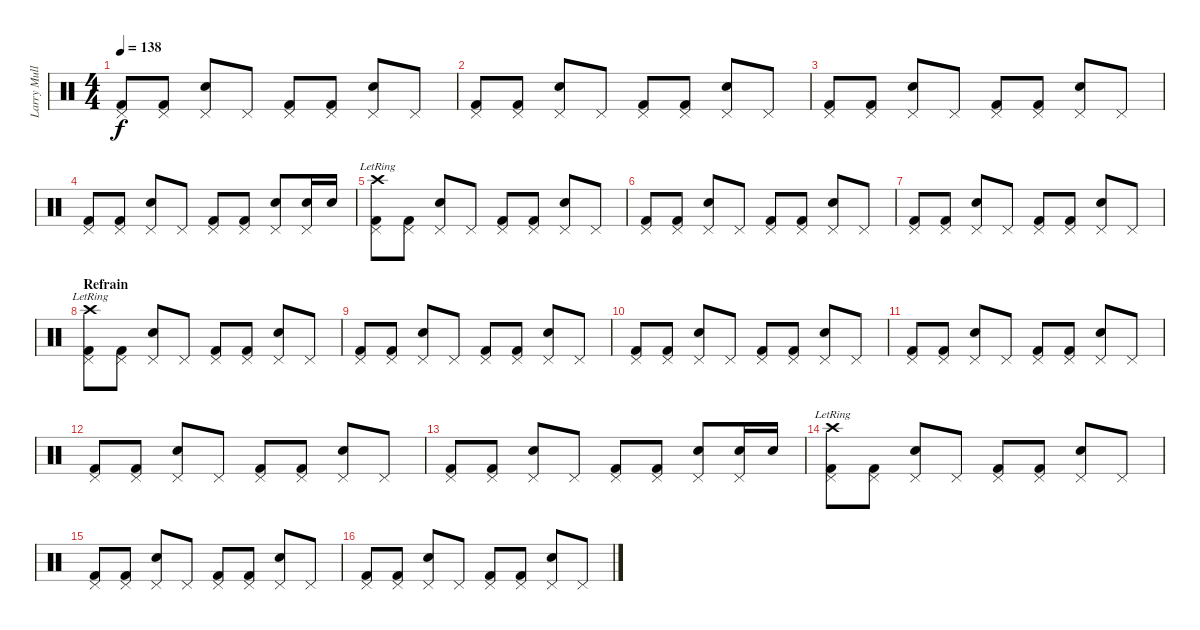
\track ("Larry Mullen" "Larry Mull") {instrument percussion}
\staff {score}
\articulation defaults
\ts (4 4)
\tempo 138
\clef neutral
\ks c
("Kick (hit) 2" "Pedal Hi-Hat (hit)").8{dy f} ("Kick (hit) 2" "Pedal Hi-Hat (hit)").8 ("Snare (hit) 2" "Pedal Hi-Hat (hit)").8 "Pedal Hi-Hat (hit)".8 ("Kick (hit) 2" "Pedal Hi-Hat (hit)").8 ("Kick (hit) 2" "Pedal Hi-Hat (hit)").8 ("Snare (hit) 2" "Pedal Hi-Hat (hit)").8 "Pedal Hi-Hat (hit)".8 |
("Kick (hit) 2" "Pedal Hi-Hat (hit)").8 ("Kick (hit) 2" "Pedal Hi-Hat (hit)").8 ("Snare (hit) 2" "Pedal Hi-Hat (hit)").8 "Pedal Hi-Hat (hit)".8 ("Kick (hit) 2" "Pedal Hi-Hat (hit)").8 ("Kick (hit) 2" "Pedal Hi-Hat (hit)").8 ("Snare (hit) 2" "Pedal Hi-Hat (hit)").8 "Pedal Hi-Hat (hit)".8 |
("Kick (hit) 2" "Pedal Hi-Hat (hit)").8 ("Kick (hit) 2" "Pedal Hi-Hat (hit)").8 ("Snare (hit) 2" "Pedal Hi-Hat (hit)").8 "Pedal Hi-Hat (hit)".8 ("Kick (hit) 2" "Pedal Hi-Hat (hit)").8 ("Kick (hit) 2" "Pedal Hi-Hat (hit)").8 ("Snare (hit) 2" "Pedal Hi-Hat (hit)").8 "Pedal Hi-Hat (hit)".8 |
("Kick (hit) 2" "Pedal Hi-Hat (hit)").8 ("Kick (hit) 2" "Pedal Hi-Hat (hit)").8 ("Snare (hit) 2" "Pedal Hi-Hat (hit)").8 "Pedal Hi-Hat (hit)".8 ("Kick (hit) 2" "Pedal Hi-Hat (hit)").8 ("Kick (hit) 2" "Pedal Hi-Hat (hit)").8 ("Snare (hit) 2" "Pedal Hi-Hat (hit)").8 ("Snare (hit) 2" "Pedal Hi-Hat (hit)").16 "Snare (hit) 2".16 |
("Kick (hit) 2" "Crash high (hit)"{lr} "Pedal Hi-Hat (hit)").8 ("Kick (hit) 2" "Pedal Hi-Hat (hit)").8 ("Snare (hit) 2" "Pedal Hi-Hat (hit)").8 "Pedal Hi-Hat (hit)".8 ("Kick (hit) 2" "Pedal Hi-Hat (hit)").8 ("Kick (hit) 2" "Pedal Hi-Hat (hit)").8 ("Snare (hit) 2" "Pedal Hi-Hat (hit)").8 "Pedal Hi-Hat (hit)".8 |
("Kick (hit) 2" "Pedal Hi-Hat (hit)").8 ("Kick (hit) 2" "Pedal Hi-Hat (hit)").8 ("Snare (hit) 2" "Pedal Hi-Hat (hit)").8 "Pedal Hi-Hat (hit)".8 ("Kick (hit) 2" "Pedal Hi-Hat (hit)").8 ("Kick (hit) 2" "Pedal Hi-Hat (hit)").8 ("Snare (hit) 2" "Pedal Hi-Hat (hit)").8 "Pedal Hi-Hat (hit)".8 |
("Kick (hit) 2" "Pedal Hi-Hat (hit)").8 ("Kick (hit) 2" "Pedal Hi-Hat (hit)").8 ("Snare (hit) 2" "Pedal Hi-Hat (hit)").8 "Pedal Hi-Hat (hit)".8 ("Kick (hit) 2" "Pedal Hi-Hat (hit)").8 ("Kick (hit) 2" "Pedal Hi-Hat (hit)").8 ("Snare (hit) 2" "Pedal Hi-Hat (hit)").8 "Pedal Hi-Hat (hit)".8 |
\section ("" "Refrain")
("Kick (hit) 2" "Crash high (hit)"{lr} "Pedal Hi-Hat (hit)").8 ("Kick (hit) 2" "Pedal Hi-Hat (hit)").8 ("Snare (hit) 2" "Pedal Hi-Hat (hit)").8 "Pedal Hi-Hat (hit)".8 ("Kick (hit) 2" "Pedal Hi-Hat (hit)").8 ("Kick (hit) 2" "Pedal Hi-Hat (hit)").8 ("Snare (hit) 2" "Pedal Hi-Hat (hit)").8 "Pedal Hi-Hat (hit)".8 |
("Kick (hit) 2" "Pedal Hi-Hat (hit)").8 ("Kick (hit) 2" "Pedal Hi-Hat (hit)").8 ("Snare (hit) 2" "Pedal Hi-Hat (hit)").8 "Pedal Hi-Hat (hit)".8 ("Kick (hit) 2" "Pedal Hi-Hat (hit)").8 ("Kick (hit) 2" "Pedal Hi-Hat (hit)").8 ("Snare (hit) 2" "Pedal Hi-Hat (hit)").8 "Pedal Hi-Hat (hit)".8 |
("Kick (hit) 2" "Pedal Hi-Hat (hit)").8 ("Kick (hit) 2" "Pedal Hi-Hat (hit)").8 ("Snare (hit) 2" "Pedal Hi-Hat (hit)").8 "Pedal Hi-Hat (hit)".8 ("Kick (hit) 2" "Pedal Hi-Hat (hit)").8 ("Kick (hit) 2" "Pedal Hi-Hat (hit)").8 ("Snare (hit) 2" "Pedal Hi-Hat (hit)").8 "Pedal Hi-Hat (hit)".8 |
("Kick (hit) 2" "Pedal Hi-Hat (hit)").8 ("Kick (hit) 2" "Pedal Hi-Hat (hit)").8 ("Snare (hit) 2" "Pedal Hi-Hat (hit)").8 "Pedal Hi-Hat (hit)".8 ("Kick (hit) 2" "Pedal Hi-Hat (hit)").8 ("Kick (hit) 2" "Pedal Hi-Hat (hit)").8 ("Snare (hit) 2" "Pedal Hi-Hat (hit)").8 "Pedal Hi-Hat (hit)".8 |
("Kick (hit) 2" "Pedal Hi-Hat (hit)").8 ("Kick (hit) 2" "Pedal Hi-Hat (hit)").8 ("Snare (hit) 2" "Pedal Hi-Hat (hit)").8 "Pedal Hi-Hat (hit)".8 ("Kick (hit) 2" "Pedal Hi-Hat (hit)").8 ("Kick (hit) 2" "Pedal Hi-Hat (hit)").8 ("Snare (hit) 2" "Pedal Hi-Hat (hit)").8 "Pedal Hi-Hat (hit)".8 |
("Kick (hit) 2" "Pedal Hi-Hat (hit)").8 ("Kick (hit) 2" "Pedal Hi-Hat (hit)").8 ("Snare (hit) 2" "Pedal Hi-Hat (hit)").8 "Pedal Hi-Hat (hit)".8 ("Kick (hit) 2" "Pedal Hi-Hat (hit)").8 ("Kick (hit) 2" "Pedal Hi-Hat (hit)").8 ("Snare (hit) 2" "Pedal Hi-Hat (hit)").8 ("Snare (hit) 2" "Pedal Hi-Hat (hit)").16 "Snare (hit) 2".16 |
("Kick (hit) 2" "Crash high (hit)"{lr} "Pedal Hi-Hat (hit)").8 ("Kick (hit) 2" "Pedal Hi-Hat (hit)").8 ("Snare (hit) 2" "Pedal Hi-Hat (hit)").8 "Pedal Hi-Hat (hit)".8 ("Kick (hit) 2" "Pedal Hi-Hat (hit)").8 ("Kick (hit) 2" "Pedal Hi-Hat (hit)").8 ("Snare (hit) 2" "Pedal Hi-Hat (hit)").8 "Pedal Hi-Hat (hit)".8 |
("Kick (hit) 2" "Pedal Hi-Hat (hit)").8 ("Kick (hit) 2" "Pedal Hi-Hat (hit)").8 ("Snare (hit) 2" "Pedal Hi-Hat (hit)").8 "Pedal Hi-Hat (hit)".8 ("Kick (hit) 2" "Pedal Hi-Hat (hit)").8 ("Kick (hit) 2" "Pedal Hi-Hat (hit)").8 ("Snare (hit) 2" "Pedal Hi-Hat (hit)").8 "Pedal Hi-Hat (hit)".8 |
("Kick (hit) 2" "Pedal Hi-Hat (hit)").8 ("Kick (hit) 2" "Pedal Hi-Hat (hit)").8 ("Snare (hit) 2" "Pedal Hi-Hat (hit)").8 "Pedal Hi-Hat (hit)".8 ("Kick (hit) 2" "Pedal Hi-Hat (hit)").8 ("Kick (hit) 2" "Pedal Hi-Hat (hit)").8 ("Snare (hit) 2" "Pedal Hi-Hat (hit)").8 "Pedal Hi-Hat (hit)".8
